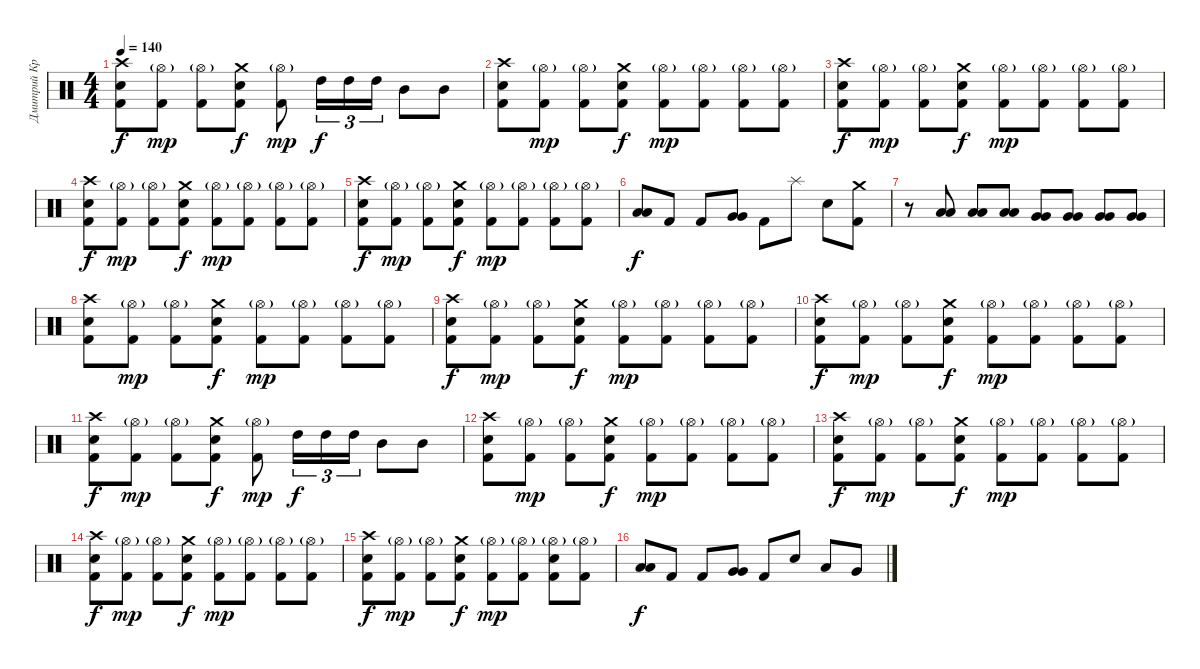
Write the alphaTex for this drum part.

\track ("Дмитрий Кривенков" "Дмитрий Кр") {instrument percussion}
\staff {score}
\articulation defaults
\ts (4 4)
\tempo 140
\clef neutral
\ks c
("Crash high (hit)" "Electric Snare (hit)" "Kick (hit) 2").8{dy f} ("Hi-Hat (open)"{g} "Kick (hit) 2").8{dy mp} ("Hi-Hat (open)"{g} "Kick (hit) 2").8 ("Crash medium (hit)" "Electric Snare (hit)" "Kick (hit) 2").8{dy f} ("Hi-Hat (open)"{g} "Kick (hit) 2").8{dy mp} "High Tom (hit)".16{tu (3 2) dy f} "High Tom (hit)".16{tu (3 2)} "High Tom (hit)".16{tu (3 2)} "Mid Tom (hit)".8 "Mid Tom (hit)".8 |
("Crash high (hit)" "Electric Snare (hit)" "Kick (hit) 2").8 ("Hi-Hat (open)"{g} "Kick (hit) 2").8{dy mp} ("Hi-Hat (open)"{g} "Kick (hit) 2").8 ("Crash medium (hit)" "Electric Snare (hit)" "Kick (hit) 2").8{dy f} ("Hi-Hat (open)"{g} "Kick (hit) 2").8{dy mp} ("Hi-Hat (open)"{g} "Kick (hit) 2").8 ("Hi-Hat (open)"{g} "Kick (hit) 2").8 ("Hi-Hat (open)"{g} "Kick (hit) 2").8 |
("Crash high (hit)" "Electric Snare (hit)" "Kick (hit) 2").8{dy f} ("Hi-Hat (open)"{g} "Kick (hit) 2").8{dy mp} ("Hi-Hat (open)"{g} "Kick (hit) 2").8 ("Crash medium (hit)" "Electric Snare (hit)" "Kick (hit) 2").8{dy f} ("Hi-Hat (open)"{g} "Kick (hit) 2").8{dy mp} ("Hi-Hat (open)"{g} "Kick (hit) 2").8 ("Hi-Hat (open)"{g} "Kick (hit) 2").8 ("Hi-Hat (open)"{g} "Kick (hit) 2").8 |
("Crash high (hit)" "Electric Snare (hit)" "Kick (hit) 2").8{dy f} ("Hi-Hat (open)"{g} "Kick (hit) 2").8{dy mp} ("Hi-Hat (open)"{g} "Kick (hit) 2").8 ("Crash medium (hit)" "Electric Snare (hit)" "Kick (hit) 2").8{dy f} ("Hi-Hat (open)"{g} "Kick (hit) 2").8{dy mp} ("Hi-Hat (open)"{g} "Kick (hit) 2").8 ("Hi-Hat (open)"{g} "Kick (hit) 2").8 ("Hi-Hat (open)"{g} "Kick (hit) 2").8 |
("Crash high (hit)" "Electric Snare (hit)" "Kick (hit) 2").8{dy f} ("Hi-Hat (open)"{g} "Kick (hit) 2").8{dy mp} ("Hi-Hat (open)"{g} "Kick (hit) 2").8 ("Crash medium (hit)" "Electric Snare (hit)" "Kick (hit) 2").8{dy f} ("Hi-Hat (open)"{g} "Kick (hit) 2").8{dy mp} ("Hi-Hat (open)"{g} "Kick (hit) 2").8 ("Hi-Hat (open)"{g} "Kick (hit) 2").8 ("Hi-Hat (open)"{g} "Kick (hit) 2").8 |
("Low Tom (hit)" "Low Tom (hit)").8{dy f} "Kick (hit) 2".8 "Kick (hit) 2".8 ("Very Low Tom (hit)" "Very Low Tom (hit)").8 "Kick (hit) 2".8 "Splash (hit)".8 "Electric Snare (hit)".8 ("Crash medium (hit)" "Kick (hit) 2").8 |
r.8 ("Low Tom (hit)" "Low Tom (hit)").8 ("Low Tom (hit)" "Low Tom (hit)").8 ("Low Tom (hit)" "Low Tom (hit)").8 ("Very Low Tom (hit)" "Very Low Tom (hit)").8 ("Very Low Tom (hit)" "Very Low Tom (hit)").8 ("Very Low Tom (hit)" "Very Low Tom (hit)").8 ("Very Low Tom (hit)" "Very Low Tom (hit)").8 |
("Crash high (hit)" "Electric Snare (hit)" "Kick (hit) 2").8 ("Hi-Hat (open)"{g} "Kick (hit) 2").8{dy mp} ("Hi-Hat (open)"{g} "Kick (hit) 2").8 ("Crash medium (hit)" "Electric Snare (hit)" "Kick (hit) 2").8{dy f} ("Hi-Hat (open)"{g} "Kick (hit) 2").8{dy mp} ("Hi-Hat (open)"{g} "Kick (hit) 2").8 ("Hi-Hat (open)"{g} "Kick (hit) 2").8 ("Hi-Hat (open)"{g} "Kick (hit) 2").8 |
("Crash high (hit)" "Electric Snare (hit)" "Kick (hit) 2").8{dy f} ("Hi-Hat (open)"{g} "Kick (hit) 2").8{dy mp} ("Hi-Hat (open)"{g} "Kick (hit) 2").8 ("Crash medium (hit)" "Electric Snare (hit)" "Kick (hit) 2").8{dy f} ("Hi-Hat (open)"{g} "Kick (hit) 2").8{dy mp} ("Hi-Hat (open)"{g} "Kick (hit) 2").8 ("Hi-Hat (open)"{g} "Kick (hit) 2").8 ("Hi-Hat (open)"{g} "Kick (hit) 2").8 |
("Crash high (hit)" "Electric Snare (hit)" "Kick (hit) 2").8{dy f} ("Hi-Hat (open)"{g} "Kick (hit) 2").8{dy mp} ("Hi-Hat (open)"{g} "Kick (hit) 2").8 ("Crash medium (hit)" "Electric Snare (hit)" "Kick (hit) 2").8{dy f} ("Hi-Hat (open)"{g} "Kick (hit) 2").8{dy mp} ("Hi-Hat (open)"{g} "Kick (hit) 2").8 ("Hi-Hat (open)"{g} "Kick (hit) 2").8 ("Hi-Hat (open)"{g} "Kick (hit) 2").8 |
("Crash high (hit)" "Electric Snare (hit)" "Kick (hit) 2").8{dy f} ("Hi-Hat (open)"{g} "Kick (hit) 2").8{dy mp} ("Hi-Hat (open)"{g} "Kick (hit) 2").8 ("Crash medium (hit)" "Electric Snare (hit)" "Kick (hit) 2").8{dy f} ("Hi-Hat (open)"{g} "Kick (hit) 2").8{dy mp} "High Tom (hit)".16{tu (3 2) dy f} "High Tom (hit)".16{tu (3 2)} "High Tom (hit)".16{tu (3 2)} "Mid Tom (hit)".8 "Mid Tom (hit)".8 |
("Crash high (hit)" "Electric Snare (hit)" "Kick (hit) 2").8 ("Hi-Hat (open)"{g} "Kick (hit) 2").8{dy mp} ("Hi-Hat (open)"{g} "Kick (hit) 2").8 ("Crash medium (hit)" "Electric Snare (hit)" "Kick (hit) 2").8{dy f} ("Hi-Hat (open)"{g} "Kick (hit) 2").8{dy mp} ("Hi-Hat (open)"{g} "Kick (hit) 2").8 ("Hi-Hat (open)"{g} "Kick (hit) 2").8 ("Hi-Hat (open)"{g} "Kick (hit) 2").8 |
("Crash high (hit)" "Electric Snare (hit)" "Kick (hit) 2").8{dy f} ("Hi-Hat (open)"{g} "Kick (hit) 2").8{dy mp} ("Hi-Hat (open)"{g} "Kick (hit) 2").8 ("Crash medium (hit)" "Electric Snare (hit)" "Kick (hit) 2").8{dy f} ("Hi-Hat (open)"{g} "Kick (hit) 2").8{dy mp} ("Hi-Hat (open)"{g} "Kick (hit) 2").8 ("Hi-Hat (open)"{g} "Kick (hit) 2").8 ("Hi-Hat (open)"{g} "Kick (hit) 2").8 |
("Crash high (hit)" "Electric Snare (hit)" "Kick (hit) 2").8{dy f} ("Hi-Hat (open)"{g} "Kick (hit) 2").8{dy mp} ("Hi-Hat (open)"{g} "Kick (hit) 2").8 ("Crash medium (hit)" "Electric Snare (hit)" "Kick (hit) 2").8{dy f} ("Hi-Hat (open)"{g} "Kick (hit) 2").8{dy mp} ("Hi-Hat (open)"{g} "Kick (hit) 2").8 ("Hi-Hat (open)"{g} "Kick (hit) 2").8 ("Hi-Hat (open)"{g} "Kick (hit) 2").8 |
("Crash high (hit)" "Electric Snare (hit)" "Kick (hit) 2").8{dy f} ("Hi-Hat (open)"{g} "Kick (hit) 2").8{dy mp} ("Hi-Hat (open)"{g} "Kick (hit) 2").8 ("Crash medium (hit)" "Electric Snare (hit)" "Kick (hit) 2").8{dy f} ("Hi-Hat (open)"{g} "Kick (hit) 2").8{dy mp} ("Hi-Hat (open)"{g} "Kick (hit) 2").8 ("Hi-Hat (open)"{g} "Electric Snare (hit)" "Kick (hit) 2").8 ("Hi-Hat (open)"{g} "Kick (hit) 2").8 |
("Low Tom (hit)" "Low Tom (hit)").8{dy f} "Kick (hit) 2".8 "Kick (hit) 2".8 ("Very Low Tom (hit)" "Very Low Tom (hit)").8 "Kick (hit) 2".8 "Electric Snare (hit)".8 "Low Tom (hit)".8 "Very Low Tom (hit)".8
